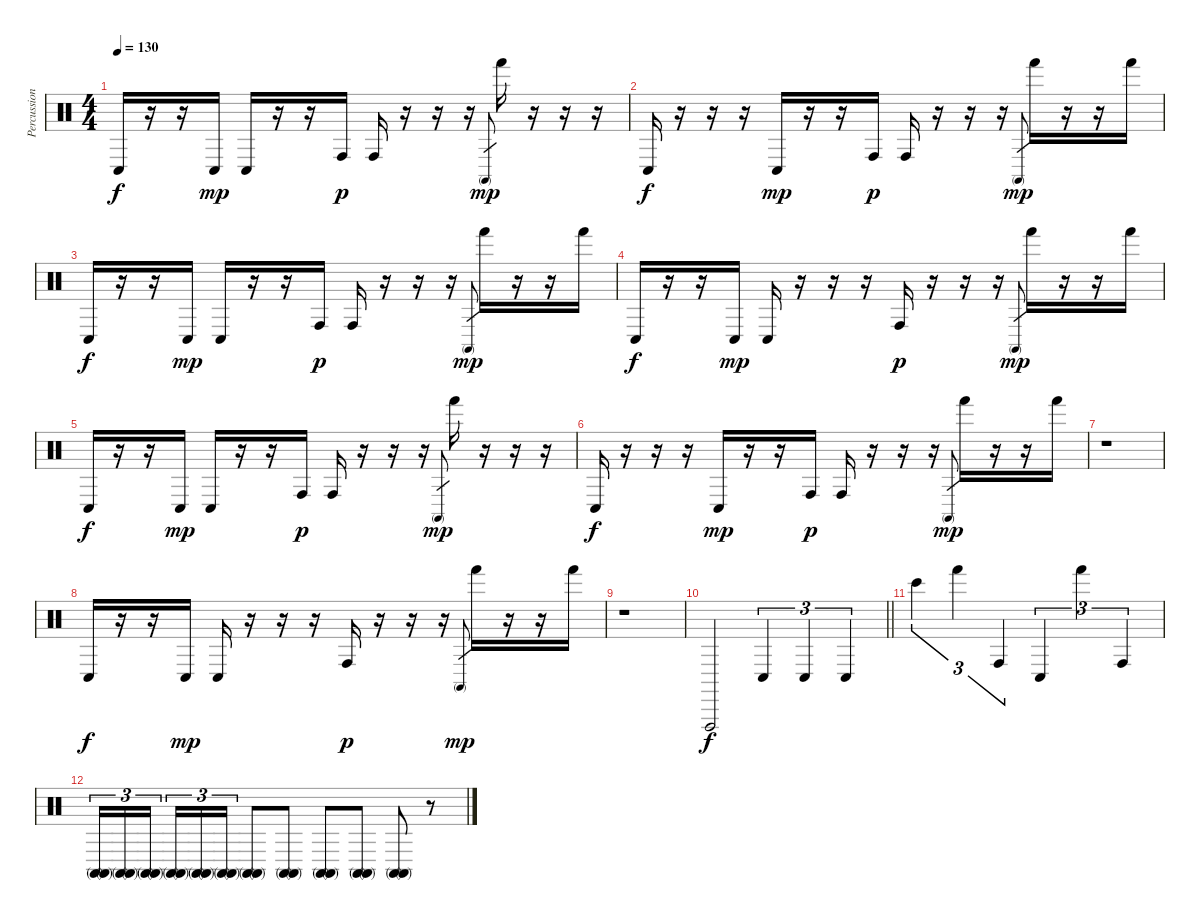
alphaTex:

\track ("Percussions" "Percussion") {instrument percussion}
\staff {score}
\articulation defaults
\ts (4 4)
\tempo 130
\clef neutral
\ks c "Conga low (hit)".16{dy f}
r.16 r.16 "Conga low (hit)".16{dy mp} "Conga low (hit)".16 r.16 r.16 "Conga high (hit)".16{dy p} "Conga high (hit)".16 r.16 r.16 r.16 "Conga high (mute)".8{gr dy mp} "Hand (hit)".16 r.16 r.16 r.16 |
"Conga low (hit)".16{dy f} r.16 r.16 r.16 "Conga low (hit)".16{dy mp} r.16 r.16 "Conga high (hit)".16{dy p} "Conga high (hit)".16 r.16 r.16 r.16 "Conga high (mute)".8{gr dy mp} "Hand (hit)".16 r.16 r.16 "Hand (hit)".16 |
"Conga low (hit)".16{dy f} r.16 r.16 "Conga low (hit)".16{dy mp} "Conga low (hit)".16 r.16 r.16 "Conga high (hit)".16{dy p} "Conga high (hit)".16 r.16 r.16 r.16 "Conga high (mute)".8{gr dy mp} "Hand (hit)".16 r.16 r.16 "Hand (hit)".16 |
"Conga low (hit)".16{dy f} r.16 r.16 "Conga low (hit)".16{dy mp} "Conga low (hit)".16 r.16 r.16 r.16 "Conga high (hit)".16{dy p} r.16 r.16 r.16 "Conga high (mute)".8{gr dy mp} "Hand (hit)".16 r.16 r.16 "Hand (hit)".16 |
"Conga low (hit)".16{dy f} r.16 r.16 "Conga low (hit)".16{dy mp} "Conga low (hit)".16 r.16 r.16 "Conga high (hit)".16{dy p} "Conga high (hit)".16 r.16 r.16 r.16 "Conga high (mute)".8{gr dy mp} "Hand (hit)".16 r.16 r.16 r.16 |
"Conga low (hit)".16{dy f} r.16 r.16 r.16 "Conga low (hit)".16{dy mp} r.16 r.16 "Conga high (hit)".16{dy p} "Conga high (hit)".16 r.16 r.16 r.16 "Conga high (mute)".8{gr dy mp} "Hand (hit)".16 r.16 r.16 "Hand (hit)".16 |
r.1 |
"Conga low (hit)".16{dy f} r.16 r.16 "Conga low (hit)".16{dy mp} "Conga low (hit)".16 r.16 r.16 r.16 "Conga high (hit)".16{dy p} r.16 r.16 r.16 "Conga high (mute)".8{gr dy mp} "Hand (hit)".16 r.16 r.16 "Hand (hit)".16 |
r.1 |
\barLineRight lightlight "Vibraslap (hit)".2{dy f} "Conga low (hit)".4{tu (3 2)} "Conga low (hit)".4{tu (3 2)} "Conga low (hit)".4{tu (3 2)}
|
"Bongo High (hit)".4{tu (3 2)} "Hand (hit)".4{tu (3 2)} "Conga high (hit)".4{tu (3 2)} "Conga low (hit)".4{tu (3 2)} "Hand (hit)".4{tu (3 2)} "Conga high (hit)".4{tu (3 2)} |
("Conga high (mute)" "Conga high (mute)").16{tu (3 2)} ("Conga high (mute)" "Conga high (mute)").16{tu (3 2)} ("Conga high (mute)" "Conga high (mute)").16{tu (3 2)} ("Conga high (mute)" "Conga high (mute)").16{tu (3 2)} ("Conga high (mute)" "Conga high (mute)").16{tu (3 2)} ("Conga high (mute)" "Conga high (mute)").16{tu (3 2)} ("Conga high (mute)" "Conga high (mute)").8 ("Conga high (mute)" "Conga high (mute)").8 ("Conga high (mute)" "Conga high (mute)").8 ("Conga high (mute)" "Conga high (mute)").8 ("Conga high (mute)" "Conga high (mute)").8 r.8
